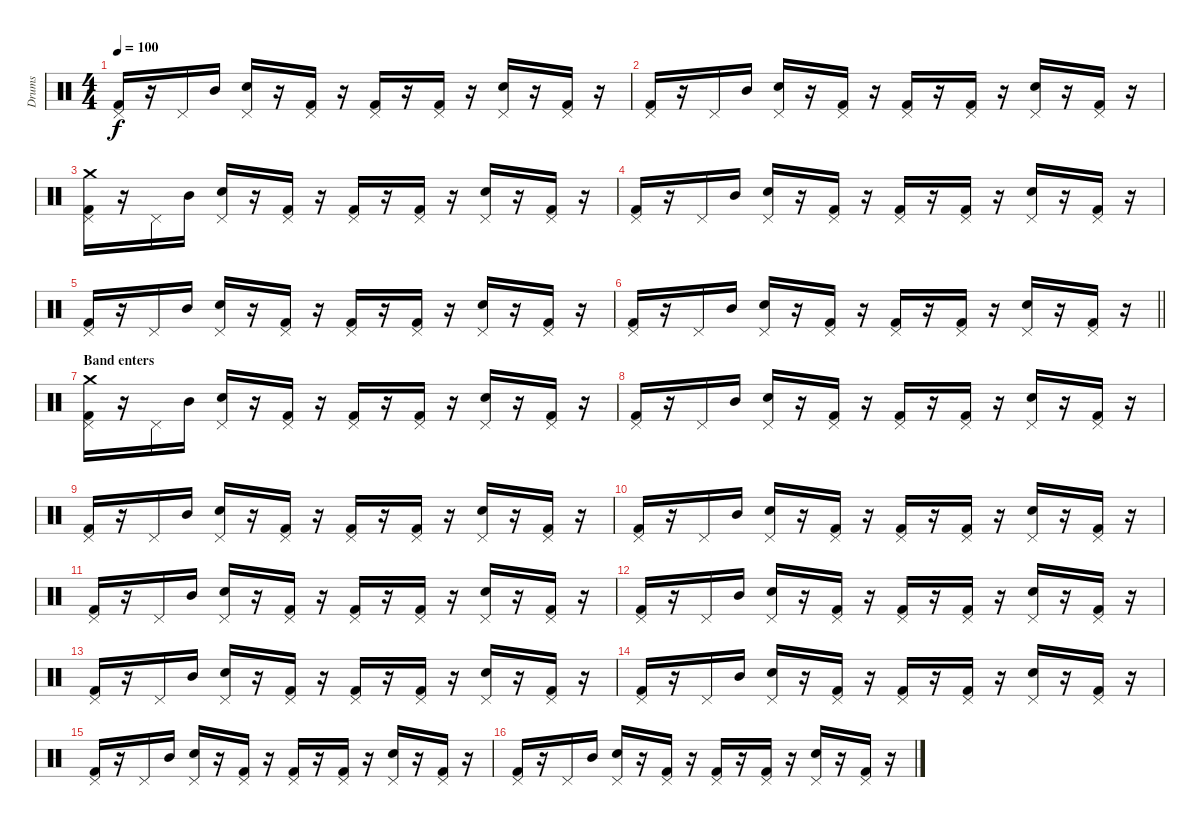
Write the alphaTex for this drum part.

\track ("Drums" "Drums") {instrument percussion}
\staff {score}
\articulation defaults
\ts (4 4)
\tempo 100
\clef neutral
\ks c
("Kick (hit) 2" "Pedal Hi-Hat (hit)").16{dy f} r.16 "Pedal Hi-Hat (hit)".16 "Mid Tom (hit)".16 ("Pedal Hi-Hat (hit)" "Electric Snare (hit)").16 r.16 ("Kick (hit) 2" "Pedal Hi-Hat (hit)").16 r.16 ("Kick (hit) 2" "Pedal Hi-Hat (hit)").16 r.16 ("Kick (hit) 2" "Pedal Hi-Hat (hit)").16 r.16 ("Pedal Hi-Hat (hit)" "Electric Snare (hit)").16 r.16 ("Kick (hit) 2" "Pedal Hi-Hat (hit)").16 r.16 |
("Kick (hit) 2" "Pedal Hi-Hat (hit)").16 r.16 "Pedal Hi-Hat (hit)".16 "Mid Tom (hit)".16 ("Pedal Hi-Hat (hit)" "Electric Snare (hit)").16 r.16 ("Kick (hit) 2" "Pedal Hi-Hat (hit)").16 r.16 ("Kick (hit) 2" "Pedal Hi-Hat (hit)").16 r.16 ("Kick (hit) 2" "Pedal Hi-Hat (hit)").16 r.16 ("Pedal Hi-Hat (hit)" "Electric Snare (hit)").16 r.16 ("Kick (hit) 2" "Pedal Hi-Hat (hit)").16 r.16 |
("Kick (hit) 2" "Pedal Hi-Hat (hit)" "Crash medium (hit)").16 r.16 "Pedal Hi-Hat (hit)".16 "Mid Tom (hit)".16 ("Pedal Hi-Hat (hit)" "Electric Snare (hit)").16 r.16 ("Kick (hit) 2" "Pedal Hi-Hat (hit)").16 r.16 ("Kick (hit) 2" "Pedal Hi-Hat (hit)").16 r.16 ("Kick (hit) 2" "Pedal Hi-Hat (hit)").16 r.16 ("Pedal Hi-Hat (hit)" "Electric Snare (hit)").16 r.16 ("Kick (hit) 2" "Pedal Hi-Hat (hit)").16 r.16 |
("Kick (hit) 2" "Pedal Hi-Hat (hit)").16 r.16 "Pedal Hi-Hat (hit)".16 "Mid Tom (hit)".16 ("Pedal Hi-Hat (hit)" "Electric Snare (hit)").16 r.16 ("Kick (hit) 2" "Pedal Hi-Hat (hit)").16 r.16 ("Kick (hit) 2" "Pedal Hi-Hat (hit)").16 r.16 ("Kick (hit) 2" "Pedal Hi-Hat (hit)").16 r.16 ("Pedal Hi-Hat (hit)" "Electric Snare (hit)").16 r.16 ("Kick (hit) 2" "Pedal Hi-Hat (hit)").16 r.16 |
("Kick (hit) 2" "Pedal Hi-Hat (hit)").16 r.16 "Pedal Hi-Hat (hit)".16 "Mid Tom (hit)".16 ("Pedal Hi-Hat (hit)" "Electric Snare (hit)").16 r.16 ("Kick (hit) 2" "Pedal Hi-Hat (hit)").16 r.16 ("Kick (hit) 2" "Pedal Hi-Hat (hit)").16 r.16 ("Kick (hit) 2" "Pedal Hi-Hat (hit)").16 r.16 ("Pedal Hi-Hat (hit)" "Electric Snare (hit)").16 r.16 ("Kick (hit) 2" "Pedal Hi-Hat (hit)").16 r.16 |
\barLineRight lightlight
("Kick (hit) 2" "Pedal Hi-Hat (hit)").16 r.16 "Pedal Hi-Hat (hit)".16 "Mid Tom (hit)".16 ("Pedal Hi-Hat (hit)" "Electric Snare (hit)").16 r.16 ("Kick (hit) 2" "Pedal Hi-Hat (hit)").16 r.16 ("Kick (hit) 2" "Pedal Hi-Hat (hit)").16 r.16 ("Kick (hit) 2" "Pedal Hi-Hat (hit)").16 r.16 ("Pedal Hi-Hat (hit)" "Electric Snare (hit)").16 r.16 ("Kick (hit) 2" "Pedal Hi-Hat (hit)").16 r.16 |
\section ("" "Band enters")
("Kick (hit) 2" "Pedal Hi-Hat (hit)" "Crash medium (hit)").16{volume 12} r.16 "Pedal Hi-Hat (hit)".16 "Mid Tom (hit)".16 ("Pedal Hi-Hat (hit)" "Electric Snare (hit)").16 r.16 ("Kick (hit) 2" "Pedal Hi-Hat (hit)").16 r.16 ("Kick (hit) 2" "Pedal Hi-Hat (hit)").16 r.16 ("Kick (hit) 2" "Pedal Hi-Hat (hit)").16 r.16 ("Pedal Hi-Hat (hit)" "Electric Snare (hit)").16 r.16 ("Kick (hit) 2" "Pedal Hi-Hat (hit)").16 r.16 |
("Kick (hit) 2" "Pedal Hi-Hat (hit)").16 r.16 "Pedal Hi-Hat (hit)".16 "Mid Tom (hit)".16 ("Pedal Hi-Hat (hit)" "Electric Snare (hit)").16 r.16 ("Kick (hit) 2" "Pedal Hi-Hat (hit)").16 r.16 ("Kick (hit) 2" "Pedal Hi-Hat (hit)").16 r.16 ("Kick (hit) 2" "Pedal Hi-Hat (hit)").16 r.16 ("Pedal Hi-Hat (hit)" "Electric Snare (hit)").16 r.16 ("Kick (hit) 2" "Pedal Hi-Hat (hit)").16 r.16 |
("Kick (hit) 2" "Pedal Hi-Hat (hit)").16 r.16 "Pedal Hi-Hat (hit)".16 "Mid Tom (hit)".16 ("Pedal Hi-Hat (hit)" "Electric Snare (hit)").16 r.16 ("Kick (hit) 2" "Pedal Hi-Hat (hit)").16 r.16 ("Kick (hit) 2" "Pedal Hi-Hat (hit)").16 r.16 ("Kick (hit) 2" "Pedal Hi-Hat (hit)").16 r.16 ("Pedal Hi-Hat (hit)" "Electric Snare (hit)").16 r.16 ("Kick (hit) 2" "Pedal Hi-Hat (hit)").16 r.16 |
("Kick (hit) 2" "Pedal Hi-Hat (hit)").16 r.16 "Pedal Hi-Hat (hit)".16 "Mid Tom (hit)".16 ("Pedal Hi-Hat (hit)" "Electric Snare (hit)").16 r.16 ("Kick (hit) 2" "Pedal Hi-Hat (hit)").16 r.16 ("Kick (hit) 2" "Pedal Hi-Hat (hit)").16 r.16 ("Kick (hit) 2" "Pedal Hi-Hat (hit)").16 r.16 ("Pedal Hi-Hat (hit)" "Electric Snare (hit)").16 r.16 ("Kick (hit) 2" "Pedal Hi-Hat (hit)").16 r.16 |
("Kick (hit) 2" "Pedal Hi-Hat (hit)").16 r.16 "Pedal Hi-Hat (hit)".16 "Mid Tom (hit)".16 ("Pedal Hi-Hat (hit)" "Electric Snare (hit)").16 r.16 ("Kick (hit) 2" "Pedal Hi-Hat (hit)").16 r.16 ("Kick (hit) 2" "Pedal Hi-Hat (hit)").16 r.16 ("Kick (hit) 2" "Pedal Hi-Hat (hit)").16 r.16 ("Pedal Hi-Hat (hit)" "Electric Snare (hit)").16 r.16 ("Kick (hit) 2" "Pedal Hi-Hat (hit)").16 r.16 |
("Kick (hit) 2" "Pedal Hi-Hat (hit)").16 r.16 "Pedal Hi-Hat (hit)".16 "Mid Tom (hit)".16 ("Pedal Hi-Hat (hit)" "Electric Snare (hit)").16 r.16 ("Kick (hit) 2" "Pedal Hi-Hat (hit)").16 r.16 ("Kick (hit) 2" "Pedal Hi-Hat (hit)").16 r.16 ("Kick (hit) 2" "Pedal Hi-Hat (hit)").16 r.16 ("Pedal Hi-Hat (hit)" "Electric Snare (hit)").16 r.16 ("Kick (hit) 2" "Pedal Hi-Hat (hit)").16 r.16 |
("Kick (hit) 2" "Pedal Hi-Hat (hit)").16 r.16 "Pedal Hi-Hat (hit)".16 "Mid Tom (hit)".16 ("Pedal Hi-Hat (hit)" "Electric Snare (hit)").16 r.16 ("Kick (hit) 2" "Pedal Hi-Hat (hit)").16 r.16 ("Kick (hit) 2" "Pedal Hi-Hat (hit)").16 r.16 ("Kick (hit) 2" "Pedal Hi-Hat (hit)").16 r.16 ("Pedal Hi-Hat (hit)" "Electric Snare (hit)").16 r.16 ("Kick (hit) 2" "Pedal Hi-Hat (hit)").16 r.16 |
("Kick (hit) 2" "Pedal Hi-Hat (hit)").16 r.16 "Pedal Hi-Hat (hit)".16 "Mid Tom (hit)".16 ("Pedal Hi-Hat (hit)" "Electric Snare (hit)").16 r.16 ("Kick (hit) 2" "Pedal Hi-Hat (hit)").16 r.16 ("Kick (hit) 2" "Pedal Hi-Hat (hit)").16 r.16 ("Kick (hit) 2" "Pedal Hi-Hat (hit)").16 r.16 ("Pedal Hi-Hat (hit)" "Electric Snare (hit)").16 r.16 ("Kick (hit) 2" "Pedal Hi-Hat (hit)").16 r.16 |
("Kick (hit) 2" "Pedal Hi-Hat (hit)").16 r.16 "Pedal Hi-Hat (hit)".16 "Mid Tom (hit)".16 ("Pedal Hi-Hat (hit)" "Electric Snare (hit)").16 r.16 ("Kick (hit) 2" "Pedal Hi-Hat (hit)").16 r.16 ("Kick (hit) 2" "Pedal Hi-Hat (hit)").16 r.16 ("Kick (hit) 2" "Pedal Hi-Hat (hit)").16 r.16 ("Pedal Hi-Hat (hit)" "Electric Snare (hit)").16 r.16 ("Kick (hit) 2" "Pedal Hi-Hat (hit)").16 r.16 |
("Kick (hit) 2" "Pedal Hi-Hat (hit)").16 r.16 "Pedal Hi-Hat (hit)".16 "Mid Tom (hit)".16 ("Pedal Hi-Hat (hit)" "Electric Snare (hit)").16 r.16 ("Kick (hit) 2" "Pedal Hi-Hat (hit)").16 r.16 ("Kick (hit) 2" "Pedal Hi-Hat (hit)").16 r.16 ("Kick (hit) 2" "Pedal Hi-Hat (hit)").16 r.16 ("Pedal Hi-Hat (hit)" "Electric Snare (hit)").16 r.16 ("Kick (hit) 2" "Pedal Hi-Hat (hit)").16 r.16
